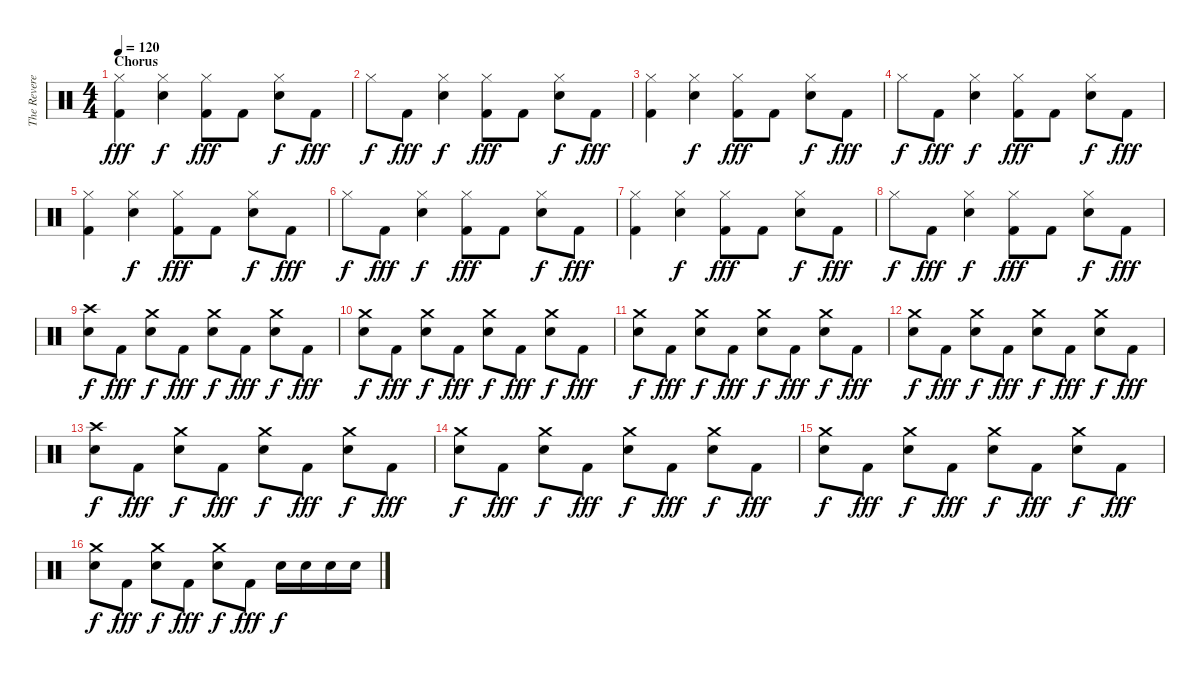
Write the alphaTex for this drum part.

\track ("The Reverend" "The Revere") {instrument percussion}
\staff {score}
\articulation defaults
\ts (4 4)
\section ("" "Chorus")
\tempo 120
\clef neutral
\ks c
("Hi-Hat (closed)" "Kick (hit) 2").4{dy fff} ("Hi-Hat (closed)" "Electric Snare (hit)").4{dy f} ("Hi-Hat (closed)" "Kick (hit) 2").8{dy fff} "Kick (hit) 2".8 ("Hi-Hat (closed)" "Electric Snare (hit)").8{dy f} "Kick (hit) 2".8{dy fff} |
"Hi-Hat (closed)".8{dy f} "Kick (hit) 2".8{dy fff} ("Hi-Hat (closed)" "Electric Snare (hit)").4{dy f} ("Hi-Hat (closed)" "Kick (hit) 2").8{dy fff} "Kick (hit) 2".8 ("Hi-Hat (closed)" "Electric Snare (hit)").8{dy f} "Kick (hit) 2".8{dy fff} |
("Hi-Hat (closed)" "Kick (hit) 2").4 ("Hi-Hat (closed)" "Electric Snare (hit)").4{dy f} ("Hi-Hat (closed)" "Kick (hit) 2").8{dy fff} "Kick (hit) 2".8 ("Hi-Hat (closed)" "Electric Snare (hit)").8{dy f} "Kick (hit) 2".8{dy fff} |
"Hi-Hat (closed)".8{dy f} "Kick (hit) 2".8{dy fff} ("Hi-Hat (closed)" "Electric Snare (hit)").4{dy f} ("Hi-Hat (closed)" "Kick (hit) 2").8{dy fff} "Kick (hit) 2".8 ("Hi-Hat (closed)" "Electric Snare (hit)").8{dy f} "Kick (hit) 2".8{dy fff} |
("Hi-Hat (closed)" "Kick (hit) 2").4 ("Hi-Hat (closed)" "Electric Snare (hit)").4{dy f} ("Hi-Hat (closed)" "Kick (hit) 2").8{dy fff} "Kick (hit) 2".8 ("Hi-Hat (closed)" "Electric Snare (hit)").8{dy f} "Kick (hit) 2".8{dy fff} |
"Hi-Hat (closed)".8{dy f} "Kick (hit) 2".8{dy fff} ("Hi-Hat (closed)" "Electric Snare (hit)").4{dy f} ("Hi-Hat (closed)" "Kick (hit) 2").8{dy fff} "Kick (hit) 2".8 ("Hi-Hat (closed)" "Electric Snare (hit)").8{dy f} "Kick (hit) 2".8{dy fff} |
("Hi-Hat (closed)" "Kick (hit) 2").4 ("Hi-Hat (closed)" "Electric Snare (hit)").4{dy f} ("Hi-Hat (closed)" "Kick (hit) 2").8{dy fff} "Kick (hit) 2".8 ("Hi-Hat (closed)" "Electric Snare (hit)").8{dy f} "Kick (hit) 2".8{dy fff} |
"Hi-Hat (closed)".8{dy f} "Kick (hit) 2".8{dy fff} ("Hi-Hat (closed)" "Electric Snare (hit)").4{dy f} ("Hi-Hat (closed)" "Kick (hit) 2").8{dy fff} "Kick (hit) 2".8 ("Hi-Hat (closed)" "Electric Snare (hit)").8{dy f} "Kick (hit) 2".8{dy fff} |
("Crash high (hit)" "Electric Snare (hit)").8{dy f} "Kick (hit) 2".8{dy fff} ("Crash medium (hit)" "Electric Snare (hit)").8{dy f} "Kick (hit) 2".8{dy fff} ("Crash medium (hit)" "Electric Snare (hit)").8{dy f} "Kick (hit) 2".8{dy fff} ("Crash medium (hit)" "Electric Snare (hit)").8{dy f} "Kick (hit) 2".8{dy fff} |
("Crash medium (hit)" "Electric Snare (hit)").8{dy f} "Kick (hit) 2".8{dy fff} ("Crash medium (hit)" "Electric Snare (hit)").8{dy f} "Kick (hit) 2".8{dy fff} ("Crash medium (hit)" "Electric Snare (hit)").8{dy f} "Kick (hit) 2".8{dy fff} ("Crash medium (hit)" "Electric Snare (hit)").8{dy f} "Kick (hit) 2".8{dy fff} |
("Crash medium (hit)" "Electric Snare (hit)").8{dy f} "Kick (hit) 2".8{dy fff} ("Crash medium (hit)" "Electric Snare (hit)").8{dy f} "Kick (hit) 2".8{dy fff} ("Crash medium (hit)" "Electric Snare (hit)").8{dy f} "Kick (hit) 2".8{dy fff} ("Crash medium (hit)" "Electric Snare (hit)").8{dy f} "Kick (hit) 2".8{dy fff} |
("Crash medium (hit)" "Electric Snare (hit)").8{dy f} "Kick (hit) 2".8{dy fff} ("Crash medium (hit)" "Electric Snare (hit)").8{dy f} "Kick (hit) 2".8{dy fff} ("Crash medium (hit)" "Electric Snare (hit)").8{dy f} "Kick (hit) 2".8{dy fff} ("Crash medium (hit)" "Electric Snare (hit)").8{dy f} "Kick (hit) 2".8{dy fff} |
("Crash high (hit)" "Electric Snare (hit)").8{dy f} "Kick (hit) 2".8{dy fff} ("Crash medium (hit)" "Electric Snare (hit)").8{dy f} "Kick (hit) 2".8{dy fff} ("Crash medium (hit)" "Electric Snare (hit)").8{dy f} "Kick (hit) 2".8{dy fff} ("Crash medium (hit)" "Electric Snare (hit)").8{dy f} "Kick (hit) 2".8{dy fff} |
("Crash medium (hit)" "Electric Snare (hit)").8{dy f} "Kick (hit) 2".8{dy fff} ("Crash medium (hit)" "Electric Snare (hit)").8{dy f} "Kick (hit) 2".8{dy fff} ("Crash medium (hit)" "Electric Snare (hit)").8{dy f} "Kick (hit) 2".8{dy fff} ("Crash medium (hit)" "Electric Snare (hit)").8{dy f} "Kick (hit) 2".8{dy fff} |
("Crash medium (hit)" "Electric Snare (hit)").8{dy f} "Kick (hit) 2".8{dy fff} ("Crash medium (hit)" "Electric Snare (hit)").8{dy f} "Kick (hit) 2".8{dy fff} ("Crash medium (hit)" "Electric Snare (hit)").8{dy f} "Kick (hit) 2".8{dy fff} ("Crash medium (hit)" "Electric Snare (hit)").8{dy f} "Kick (hit) 2".8{dy fff} |
("Crash medium (hit)" "Electric Snare (hit)").8{dy f} "Kick (hit) 2".8{dy fff} ("Crash medium (hit)" "Electric Snare (hit)").8{dy f} "Kick (hit) 2".8{dy fff} ("Crash medium (hit)" "Electric Snare (hit)").8{dy f} "Kick (hit) 2".8{dy fff} "Electric Snare (hit)".16{dy f} "Electric Snare (hit)".16 "Electric Snare (hit)".16 "Electric Snare (hit)".16
